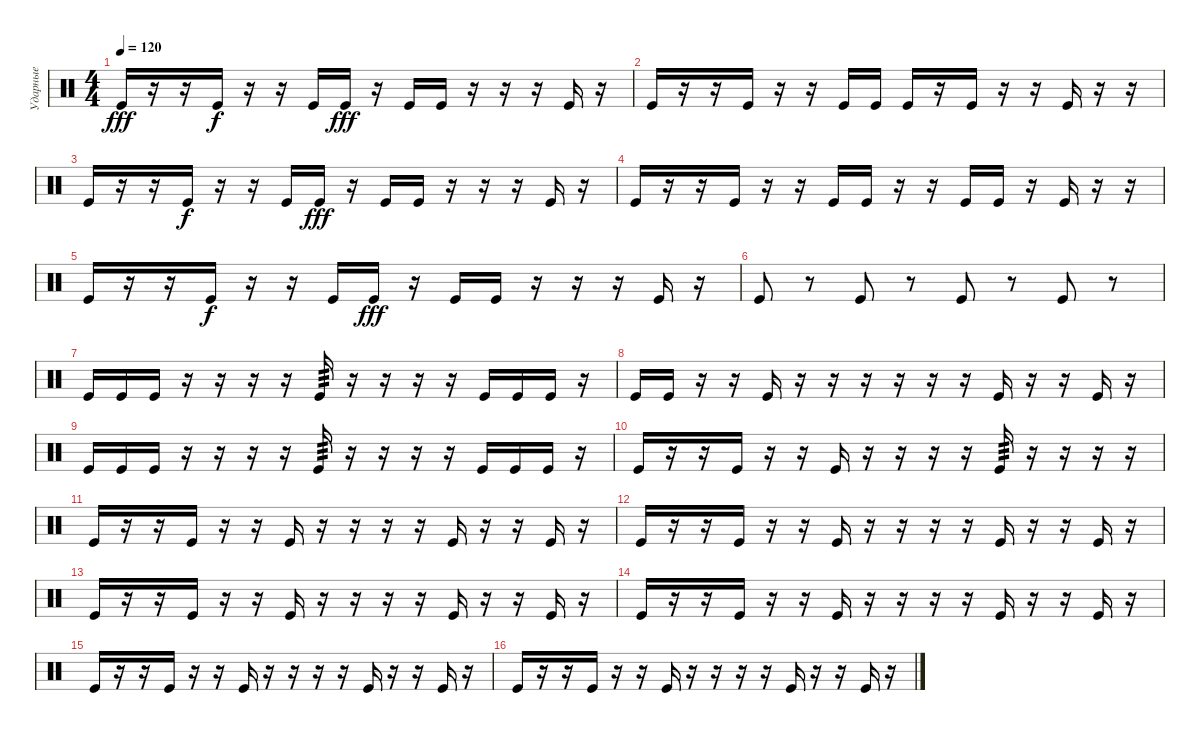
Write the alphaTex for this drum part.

\track ("Ударные" "Ударные") {instrument percussion}
\staff {score}
\articulation defaults
\ts (4 4)
\tempo 120
\clef neutral
\ks c "Kick (hit)".16{dy fff}
r.16 r.16 "Kick (hit)".16{dy f} r.16 r.16 "Kick (hit)".16 "Kick (hit)".16{dy fff} r.16 "Kick (hit)".16 "Kick (hit)".16 r.16 r.16 r.16 "Kick (hit)".16 r.16 |
"Kick (hit)".16 r.16 r.16 "Kick (hit)".16 r.16 r.16 "Kick (hit)".16 "Kick (hit)".16 "Kick (hit)".16 r.16 "Kick (hit)".16 r.16 r.16 "Kick (hit)".16 r.16 r.16 |
"Kick (hit)".16 r.16 r.16 "Kick (hit)".16{dy f} r.16 r.16 "Kick (hit)".16 "Kick (hit)".16{dy fff} r.16 "Kick (hit)".16 "Kick (hit)".16 r.16 r.16 r.16 "Kick (hit)".16 r.16 |
"Kick (hit)".16 r.16 r.16 "Kick (hit)".16 r.16 r.16 "Kick (hit)".16 "Kick (hit)".16 r.16 r.16 "Kick (hit)".16 "Kick (hit)".16 r.16 "Kick (hit)".16 r.16 r.16 |
"Kick (hit)".16 r.16 r.16 "Kick (hit)".16{dy f} r.16 r.16 "Kick (hit)".16 "Kick (hit)".16{dy fff} r.16 "Kick (hit)".16 "Kick (hit)".16 r.16 r.16 r.16 "Kick (hit)".16 r.16 |
"Kick (hit)".8 r.8 "Kick (hit)".8 r.8 "Kick (hit)".8 r.8 "Kick (hit)".8 r.8 |
"Kick (hit)".16 "Kick (hit)".16 "Kick (hit)".16 r.16 r.16 r.16 r.16 "Kick (hit)".16{tp 3} r.16 r.16 r.16 r.16 "Kick (hit)".16 "Kick (hit)".16 "Kick (hit)".16 r.16 |
"Kick (hit)".16 "Kick (hit)".16 r.16 r.16 "Kick (hit)".16 r.16 r.16 r.16 r.16 r.16 r.16 "Kick (hit)".16 r.16 r.16 "Kick (hit)".16 r.16 |
"Kick (hit)".16 "Kick (hit)".16 "Kick (hit)".16 r.16 r.16 r.16 r.16 "Kick (hit)".16{tp 3} r.16 r.16 r.16 r.16 "Kick (hit)".16 "Kick (hit)".16 "Kick (hit)".16 r.16 |
"Kick (hit)".16 r.16 r.16 "Kick (hit)".16 r.16 r.16 "Kick (hit)".16 r.16 r.16 r.16 r.16 "Kick (hit)".16{tp 3} r.16 r.16 r.16 r.16 |
"Kick (hit)".16 r.16 r.16 "Kick (hit)".16 r.16 r.16 "Kick (hit)".16 r.16 r.16 r.16 r.16 "Kick (hit)".16 r.16 r.16 "Kick (hit)".16 r.16 |
"Kick (hit)".16 r.16 r.16 "Kick (hit)".16 r.16 r.16 "Kick (hit)".16 r.16 r.16 r.16 r.16 "Kick (hit)".16 r.16 r.16 "Kick (hit)".16 r.16 |
"Kick (hit)".16 r.16 r.16 "Kick (hit)".16 r.16 r.16 "Kick (hit)".16 r.16 r.16 r.16 r.16 "Kick (hit)".16 r.16 r.16 "Kick (hit)".16 r.16 |
"Kick (hit)".16 r.16 r.16 "Kick (hit)".16 r.16 r.16 "Kick (hit)".16 r.16 r.16 r.16 r.16 "Kick (hit)".16 r.16 r.16 "Kick (hit)".16 r.16 |
"Kick (hit)".16 r.16 r.16 "Kick (hit)".16 r.16 r.16 "Kick (hit)".16 r.16 r.16 r.16 r.16 "Kick (hit)".16 r.16 r.16 "Kick (hit)".16 r.16 |
"Kick (hit)".16 r.16 r.16 "Kick (hit)".16 r.16 r.16 "Kick (hit)".16 r.16 r.16 r.16 r.16 "Kick (hit)".16 r.16 r.16 "Kick (hit)".16 r.16
